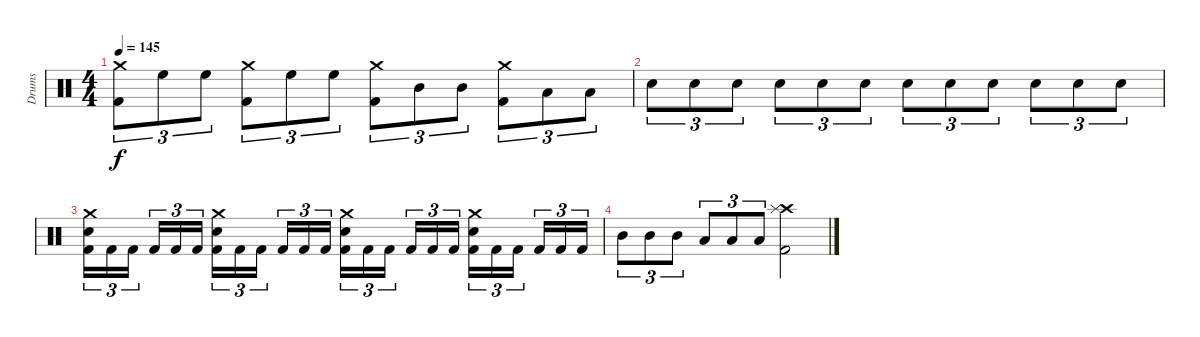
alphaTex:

\track ("Drums" "Drums") {instrument percussion}
\staff {score}
\articulation defaults
\ts (4 4)
\tempo 145
\clef neutral
\ks c
("Crash medium (hit)" "Kick (hit) 2").8{tu (3 2) dy f} "High Floor Tom (hit)".8{tu (3 2)} "High Floor Tom (hit)".8{tu (3 2)} ("Crash medium (hit)" "Kick (hit) 2").8{tu (3 2)} "High Floor Tom (hit)".8{tu (3 2)} "High Floor Tom (hit)".8{tu (3 2)} ("Crash medium (hit)" "Kick (hit) 2").8{tu (3 2)} "Mid Tom (hit)".8{tu (3 2)} "Mid Tom (hit)".8{tu (3 2)} ("Crash medium (hit)" "Kick (hit) 2").8{tu (3 2)} "Low Tom (hit)".8{tu (3 2)} "Low Tom (hit)".8{tu (3 2)} |
"Electric Snare (hit)".8{tu (3 2)} "Electric Snare (hit)".8{tu (3 2)} "Electric Snare (hit)".8{tu (3 2)} "Electric Snare (hit)".8{tu (3 2)} "Electric Snare (hit)".8{tu (3 2)} "Electric Snare (hit)".8{tu (3 2)} "Electric Snare (hit)".8{tu (3 2)} "Electric Snare (hit)".8{tu (3 2)} "Electric Snare (hit)".8{tu (3 2)} "Electric Snare (hit)".8{tu (3 2)} "Electric Snare (hit)".8{tu (3 2)} "Electric Snare (hit)".8{tu (3 2)} |
("Crash medium (hit)" "Electric Snare (hit)" "Kick (hit) 2").16{tu (3 2)} "Kick (hit) 2".16{tu (3 2)} "Kick (hit) 2".16{tu (3 2)} "Kick (hit) 2".16{tu (3 2)} "Kick (hit) 2".16{tu (3 2)} "Kick (hit) 2".16{tu (3 2)} ("Crash medium (hit)" "Electric Snare (hit)" "Kick (hit) 2").16{tu (3 2)} "Kick (hit) 2".16{tu (3 2)} "Kick (hit) 2".16{tu (3 2)} "Kick (hit) 2".16{tu (3 2)} "Kick (hit) 2".16{tu (3 2)} "Kick (hit) 2".16{tu (3 2)} ("Crash medium (hit)" "Electric Snare (hit)" "Kick (hit) 2").16{tu (3 2)} "Kick (hit) 2".16{tu (3 2)} "Kick (hit) 2".16{tu (3 2)} "Kick (hit) 2".16{tu (3 2)} "Kick (hit) 2".16{tu (3 2)} "Kick (hit) 2".16{tu (3 2)} ("Crash medium (hit)" "Electric Snare (hit)" "Kick (hit) 2").16{tu (3 2)} "Kick (hit) 2".16{tu (3 2)} "Kick (hit) 2".16{tu (3 2)} "Kick (hit) 2".16{tu (3 2)} "Kick (hit) 2".16{tu (3 2)} "Kick (hit) 2".16{tu (3 2)} |
"Mid Tom (hit)".8{tu (3 2)} "Mid Tom (hit)".8{tu (3 2)} "Mid Tom (hit)".8{tu (3 2)} "Low Tom (hit)".8{tu (3 2)} "Low Tom (hit)".8{tu (3 2)} "Low Tom (hit)".8{tu (3 2)} ("Crash high (hit)" "Splash (hit)" "Kick (hit) 2").2
